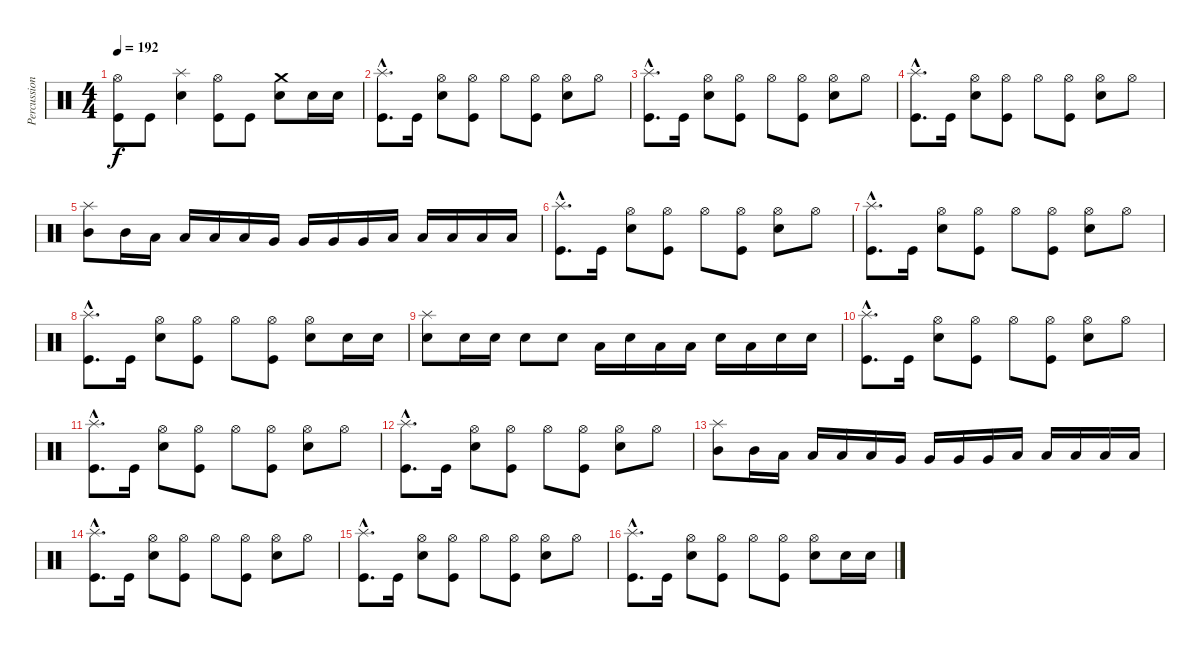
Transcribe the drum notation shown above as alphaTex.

\track ("Percussions" "Percussion") {instrument percussion}
\staff {score}
\articulation defaults
\ts (4 4)
\tempo 192
\clef neutral
\ks c
("Kick (hit)" "Hi-Hat (open)").8{dy f} "Kick (hit)".8 ("Electric Snare (hit)" "Splash (hit)").4 ("Kick (hit)" "Hi-Hat (open)").8 "Kick (hit)".8 ("Electric Snare (hit)" "Crash medium (hit)").8 "Electric Snare (hit)".16 "Electric Snare (hit)".16 |
("Kick (hit)"{hac} "Splash (hit)"{hac}).8{d} "Kick (hit)".16 ("Electric Snare (hit)" "Hi-Hat (open)").8 ("Kick (hit)" "Hi-Hat (open)").8 "Hi-Hat (open)".8 ("Kick (hit)" "Hi-Hat (open)").8 ("Electric Snare (hit)" "Hi-Hat (open)").8 "Hi-Hat (open)".8 |
("Kick (hit)"{hac} "Splash (hit)"{hac}).8{d} "Kick (hit)".16 ("Electric Snare (hit)" "Hi-Hat (open)").8 ("Kick (hit)" "Hi-Hat (open)").8 "Hi-Hat (open)".8 ("Kick (hit)" "Hi-Hat (open)").8 ("Electric Snare (hit)" "Hi-Hat (open)").8 "Hi-Hat (open)".8 |
("Kick (hit)"{hac} "Splash (hit)"{hac}).8{d} "Kick (hit)".16 ("Electric Snare (hit)" "Hi-Hat (open)").8 ("Kick (hit)" "Hi-Hat (open)").8 "Hi-Hat (open)".8 ("Kick (hit)" "Hi-Hat (open)").8 ("Electric Snare (hit)" "Hi-Hat (open)").8 "Hi-Hat (open)".8 |
("Mid Tom (hit)" "Splash (hit)").8 "Mid Tom (hit)".16 "Low Tom (hit)".16 "Low Tom (hit)".16 "Low Tom (hit)".16 "Low Tom (hit)".16 "Very Low Tom (hit)".16 "Very Low Tom (hit)".16 "Very Low Tom (hit)".16 "Very Low Tom (hit)".16 "Low Floor Tom (hit)".16 "Low Floor Tom (hit)".16 "Low Floor Tom (hit)".16 "Low Floor Tom (hit)".16 "Low Floor Tom (hit)".16 |
("Kick (hit)"{hac} "Splash (hit)"{hac}).8{d} "Kick (hit)".16 ("Electric Snare (hit)" "Hi-Hat (open)").8 ("Kick (hit)" "Hi-Hat (open)").8 "Hi-Hat (open)".8 ("Kick (hit)" "Hi-Hat (open)").8 ("Electric Snare (hit)" "Hi-Hat (open)").8 "Hi-Hat (open)".8 |
("Kick (hit)"{hac} "Splash (hit)"{hac}).8{d} "Kick (hit)".16 ("Electric Snare (hit)" "Hi-Hat (open)").8 ("Kick (hit)" "Hi-Hat (open)").8 "Hi-Hat (open)".8 ("Kick (hit)" "Hi-Hat (open)").8 ("Electric Snare (hit)" "Hi-Hat (open)").8 "Hi-Hat (open)".8 |
("Kick (hit)"{hac} "Splash (hit)"{hac}).8{d} "Kick (hit)".16 ("Electric Snare (hit)" "Hi-Hat (open)").8 ("Kick (hit)" "Hi-Hat (open)").8 "Hi-Hat (open)".8 ("Kick (hit)" "Hi-Hat (open)").8 ("Electric Snare (hit)" "Hi-Hat (open)").8 "Electric Snare (hit)".16 "Electric Snare (hit)".16 |
("Electric Snare (hit)" "Splash (hit)").8 "Electric Snare (hit)".16 "Electric Snare (hit)".16 "Electric Snare (hit)".8 "Electric Snare (hit)".8 "Low Tom (hit)".16 "Electric Snare (hit)".16 "Low Tom (hit)".16 "Low Tom (hit)".16 "Electric Snare (hit)".16 "Low Tom (hit)".16 "Electric Snare (hit)".16 "Electric Snare (hit)".16 |
("Kick (hit)"{hac} "Splash (hit)"{hac}).8{d} "Kick (hit)".16 ("Electric Snare (hit)" "Hi-Hat (open)").8 ("Kick (hit)" "Hi-Hat (open)").8 "Hi-Hat (open)".8 ("Kick (hit)" "Hi-Hat (open)").8 ("Electric Snare (hit)" "Hi-Hat (open)").8 "Hi-Hat (open)".8 |
("Kick (hit)"{hac} "Splash (hit)"{hac}).8{d} "Kick (hit)".16 ("Electric Snare (hit)" "Hi-Hat (open)").8 ("Kick (hit)" "Hi-Hat (open)").8 "Hi-Hat (open)".8 ("Kick (hit)" "Hi-Hat (open)").8 ("Electric Snare (hit)" "Hi-Hat (open)").8 "Hi-Hat (open)".8 |
("Kick (hit)"{hac} "Splash (hit)"{hac}).8{d} "Kick (hit)".16 ("Electric Snare (hit)" "Hi-Hat (open)").8 ("Kick (hit)" "Hi-Hat (open)").8 "Hi-Hat (open)".8 ("Kick (hit)" "Hi-Hat (open)").8 ("Electric Snare (hit)" "Hi-Hat (open)").8 "Hi-Hat (open)".8 |
("Mid Tom (hit)" "Splash (hit)").8 "Mid Tom (hit)".16 "Low Tom (hit)".16 "Low Tom (hit)".16 "Low Tom (hit)".16 "Low Tom (hit)".16 "Very Low Tom (hit)".16 "Very Low Tom (hit)".16 "Very Low Tom (hit)".16 "Very Low Tom (hit)".16 "Low Floor Tom (hit)".16 "Low Floor Tom (hit)".16 "Low Floor Tom (hit)".16 "Low Floor Tom (hit)".16 "Low Floor Tom (hit)".16 |
("Kick (hit)"{hac} "Splash (hit)"{hac}).8{d} "Kick (hit)".16 ("Electric Snare (hit)" "Hi-Hat (open)").8 ("Kick (hit)" "Hi-Hat (open)").8 "Hi-Hat (open)".8 ("Kick (hit)" "Hi-Hat (open)").8 ("Electric Snare (hit)" "Hi-Hat (open)").8 "Hi-Hat (open)".8 |
("Kick (hit)"{hac} "Splash (hit)"{hac}).8{d} "Kick (hit)".16 ("Electric Snare (hit)" "Hi-Hat (open)").8 ("Kick (hit)" "Hi-Hat (open)").8 "Hi-Hat (open)".8 ("Kick (hit)" "Hi-Hat (open)").8 ("Electric Snare (hit)" "Hi-Hat (open)").8 "Hi-Hat (open)".8 |
("Kick (hit)"{hac} "Splash (hit)"{hac}).8{d} "Kick (hit)".16 ("Electric Snare (hit)" "Hi-Hat (open)").8 ("Kick (hit)" "Hi-Hat (open)").8 "Hi-Hat (open)".8 ("Kick (hit)" "Hi-Hat (open)").8 ("Electric Snare (hit)" "Hi-Hat (open)").8 "Electric Snare (hit)".16 "Electric Snare (hit)".16
